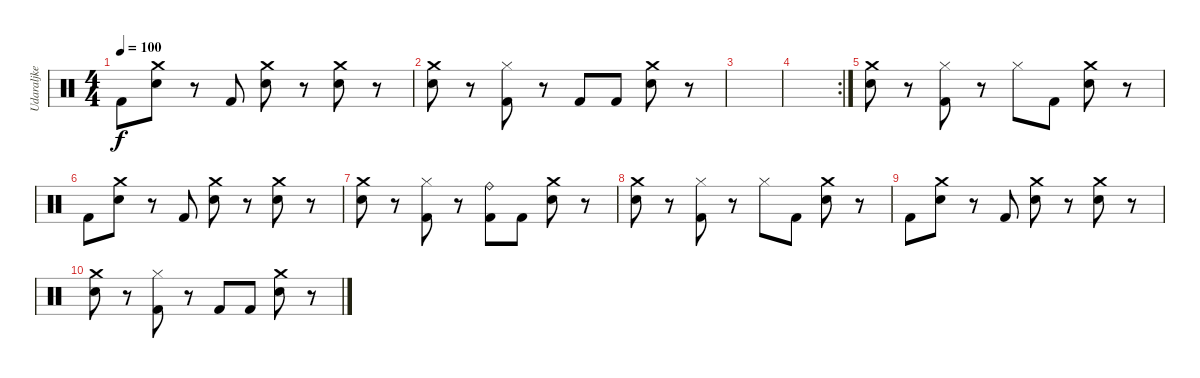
\track ("Udaraljke" "Udaraljke") {instrument percussion}
\staff {score}
\articulation defaults
\ts (4 4)
\tempo 100
\clef neutral
\ks c "Kick (hit) 2".8{dy f}
("Crash medium (hit)" "Snare (hit) 2").8 r.8 "Kick (hit) 2".8 ("Snare (hit) 2" "Crash medium (hit)").8 r.8 ("Crash medium (hit)" "Snare (hit) 2").8 r.8 |
("Crash medium (hit)" "Snare (hit) 2").8 r.8 ("Hi-Hat (closed)" "Kick (hit) 2").8 r.8 "Kick (hit) 2".8 "Kick (hit) 2".8 ("Crash medium (hit)" "Snare (hit) 2").8 r.8 |
|
\rc 2
|
("Crash medium (hit)" "Snare (hit) 2").8 r.8 ("Hi-Hat (closed)" "Kick (hit) 2").8 r.8 "Hi-Hat (closed)".8 "Kick (hit) 2".8 ("Crash medium (hit)" "Snare (hit) 2").8 r.8 |
"Kick (hit) 2".8 ("Crash medium (hit)" "Snare (hit) 2").8 r.8 "Kick (hit) 2".8 ("Snare (hit) 2" "Crash medium (hit)").8 r.8 ("Crash medium (hit)" "Snare (hit) 2").8 r.8 |
("Crash medium (hit)" "Snare (hit) 2").8 r.8 ("Hi-Hat (closed)" "Kick (hit) 2").8 r.8 ("Ride (bell)" "Kick (hit) 2").8 "Kick (hit) 2".8 ("Crash medium (hit)" "Snare (hit) 2").8 r.8 |
("Crash medium (hit)" "Snare (hit) 2").8 r.8 ("Hi-Hat (closed)" "Kick (hit) 2").8 r.8 "Hi-Hat (closed)".8 "Kick (hit) 2".8 ("Crash medium (hit)" "Snare (hit) 2").8 r.8 |
"Kick (hit) 2".8 ("Crash medium (hit)" "Snare (hit) 2").8 r.8 "Kick (hit) 2".8 ("Snare (hit) 2" "Crash medium (hit)").8 r.8 ("Crash medium (hit)" "Snare (hit) 2").8 r.8 |
("Crash medium (hit)" "Snare (hit) 2").8 r.8 ("Hi-Hat (closed)" "Kick (hit) 2").8 r.8 "Kick (hit) 2".8 "Kick (hit) 2".8 ("Crash medium (hit)" "Snare (hit) 2").8 r.8
